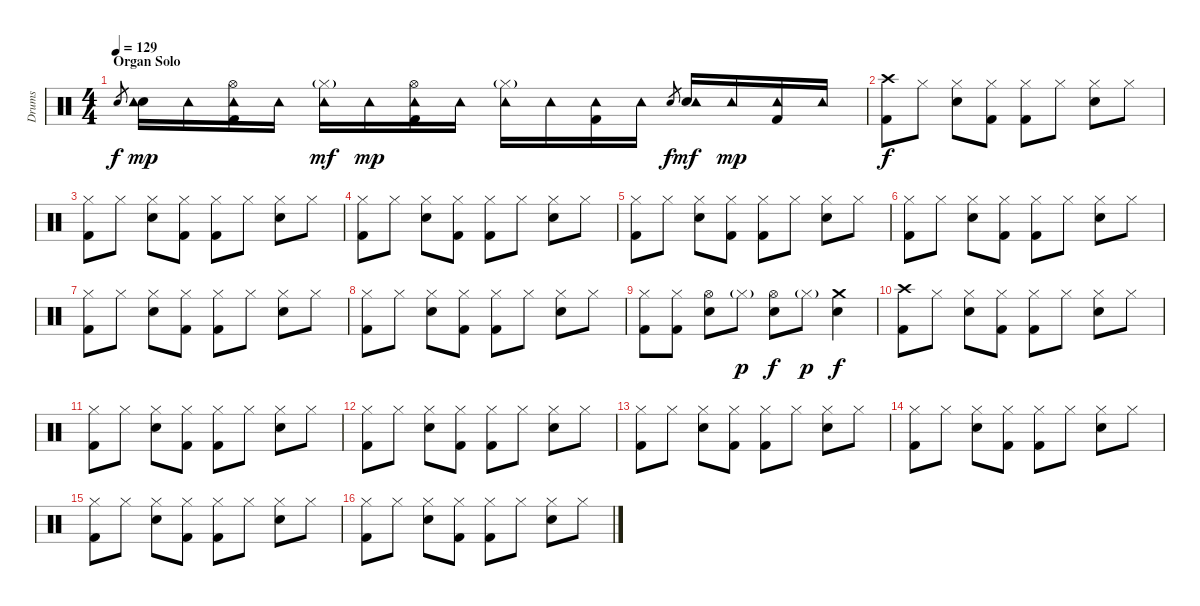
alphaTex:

\track ("Drums" "Drums") {instrument percussion}
\staff {score}
\articulation defaults
\ts (4 4)
\section ("" "Organ Solo")
\tempo 129
\clef neutral
\ks c "Snare (hit) 2".8{gr dy f}
("Snare (hit) 2" "Tambourine (hit)").16{dy mp} "Tambourine (hit)".16 ("Kick (hit) 2" "Hi-Hat (open)" "Tambourine (hit)").16 "Tambourine (hit)".16 ("Hi-Hat (closed)"{g} "Tambourine (hit)").16{dy mf} "Tambourine (hit)".16{dy mp} ("Kick (hit) 2" "Hi-Hat (open)" "Tambourine (hit)").16 "Tambourine (hit)".16 ("Hi-Hat (closed)"{g} "Tambourine (hit)").16 "Tambourine (hit)".16 ("Kick (hit) 2" "Tambourine (hit)").16 "Tambourine (hit)".16 "Snare (hit) 2".8{gr dy f} ("Snare (hit) 2" "Tambourine (hit)").16{dy mf} "Tambourine (hit)".16{dy mp} ("Kick (hit) 2" "Tambourine (hit)").16 "Tambourine (hit)".16 |
("Kick (hit) 2" "Crash high (hit)").8{dy f} "Hi-Hat (closed)".8 ("Snare (hit) 2" "Hi-Hat (closed)").8 ("Kick (hit) 2" "Hi-Hat (closed)").8 ("Kick (hit) 2" "Hi-Hat (closed)").8 "Hi-Hat (closed)".8 ("Snare (hit) 2" "Hi-Hat (closed)").8 "Hi-Hat (closed)".8 |
("Kick (hit) 2" "Hi-Hat (closed)").8 "Hi-Hat (closed)".8 ("Snare (hit) 2" "Hi-Hat (closed)").8 ("Kick (hit) 2" "Hi-Hat (closed)").8 ("Kick (hit) 2" "Hi-Hat (closed)").8 "Hi-Hat (closed)".8 ("Snare (hit) 2" "Hi-Hat (closed)").8 "Hi-Hat (closed)".8 |
("Kick (hit) 2" "Hi-Hat (closed)").8 "Hi-Hat (closed)".8 ("Snare (hit) 2" "Hi-Hat (closed)").8 ("Kick (hit) 2" "Hi-Hat (closed)").8 ("Kick (hit) 2" "Hi-Hat (closed)").8 "Hi-Hat (closed)".8 ("Snare (hit) 2" "Hi-Hat (closed)").8 "Hi-Hat (closed)".8 |
("Kick (hit) 2" "Hi-Hat (closed)").8 "Hi-Hat (closed)".8 ("Snare (hit) 2" "Hi-Hat (closed)").8 ("Kick (hit) 2" "Hi-Hat (closed)").8 ("Kick (hit) 2" "Hi-Hat (closed)").8 "Hi-Hat (closed)".8 ("Snare (hit) 2" "Hi-Hat (closed)").8 "Hi-Hat (closed)".8 |
("Kick (hit) 2" "Hi-Hat (closed)").8 "Hi-Hat (closed)".8 ("Snare (hit) 2" "Hi-Hat (closed)").8 ("Kick (hit) 2" "Hi-Hat (closed)").8 ("Kick (hit) 2" "Hi-Hat (closed)").8 "Hi-Hat (closed)".8 ("Snare (hit) 2" "Hi-Hat (closed)").8 "Hi-Hat (closed)".8 |
("Kick (hit) 2" "Hi-Hat (closed)").8 "Hi-Hat (closed)".8 ("Snare (hit) 2" "Hi-Hat (closed)").8 ("Kick (hit) 2" "Hi-Hat (closed)").8 ("Kick (hit) 2" "Hi-Hat (closed)").8 "Hi-Hat (closed)".8 ("Snare (hit) 2" "Hi-Hat (closed)").8 "Hi-Hat (closed)".8 |
("Kick (hit) 2" "Hi-Hat (closed)").8 "Hi-Hat (closed)".8 ("Snare (hit) 2" "Hi-Hat (closed)").8 ("Kick (hit) 2" "Hi-Hat (closed)").8 ("Kick (hit) 2" "Hi-Hat (closed)").8 "Hi-Hat (closed)".8 ("Snare (hit) 2" "Hi-Hat (closed)").8 "Hi-Hat (closed)".8 |
("Kick (hit) 2" "Hi-Hat (closed)").8 ("Kick (hit) 2" "Hi-Hat (closed)").8 ("Snare (hit) 2" "Hi-Hat (open)").8 "Hi-Hat (closed)"{g}.8{dy p} ("Snare (hit) 2" "Hi-Hat (open)").8{dy f} "Hi-Hat (closed)"{g}.8{dy p} ("Crash medium (hit)" "Snare (hit) 2").4{dy f} |
("Kick (hit) 2" "Crash high (hit)").8 "Hi-Hat (closed)".8 ("Snare (hit) 2" "Hi-Hat (closed)").8 ("Kick (hit) 2" "Hi-Hat (closed)").8 ("Kick (hit) 2" "Hi-Hat (closed)").8 "Hi-Hat (closed)".8 ("Snare (hit) 2" "Hi-Hat (closed)").8 "Hi-Hat (closed)".8 |
("Kick (hit) 2" "Hi-Hat (closed)").8 "Hi-Hat (closed)".8 ("Snare (hit) 2" "Hi-Hat (closed)").8 ("Kick (hit) 2" "Hi-Hat (closed)").8 ("Kick (hit) 2" "Hi-Hat (closed)").8 "Hi-Hat (closed)".8 ("Snare (hit) 2" "Hi-Hat (closed)").8 "Hi-Hat (closed)".8 |
("Kick (hit) 2" "Hi-Hat (closed)").8 "Hi-Hat (closed)".8 ("Snare (hit) 2" "Hi-Hat (closed)").8 ("Kick (hit) 2" "Hi-Hat (closed)").8 ("Kick (hit) 2" "Hi-Hat (closed)").8 "Hi-Hat (closed)".8 ("Snare (hit) 2" "Hi-Hat (closed)").8 "Hi-Hat (closed)".8 |
("Kick (hit) 2" "Hi-Hat (closed)").8 "Hi-Hat (closed)".8 ("Snare (hit) 2" "Hi-Hat (closed)").8 ("Kick (hit) 2" "Hi-Hat (closed)").8 ("Kick (hit) 2" "Hi-Hat (closed)").8 "Hi-Hat (closed)".8 ("Snare (hit) 2" "Hi-Hat (closed)").8 "Hi-Hat (closed)".8 |
("Kick (hit) 2" "Hi-Hat (closed)").8 "Hi-Hat (closed)".8 ("Snare (hit) 2" "Hi-Hat (closed)").8 ("Kick (hit) 2" "Hi-Hat (closed)").8 ("Kick (hit) 2" "Hi-Hat (closed)").8 "Hi-Hat (closed)".8 ("Snare (hit) 2" "Hi-Hat (closed)").8 "Hi-Hat (closed)".8 |
("Kick (hit) 2" "Hi-Hat (closed)").8 "Hi-Hat (closed)".8 ("Snare (hit) 2" "Hi-Hat (closed)").8 ("Kick (hit) 2" "Hi-Hat (closed)").8 ("Kick (hit) 2" "Hi-Hat (closed)").8 "Hi-Hat (closed)".8 ("Snare (hit) 2" "Hi-Hat (closed)").8 "Hi-Hat (closed)".8 |
("Kick (hit) 2" "Hi-Hat (closed)").8 "Hi-Hat (closed)".8 ("Snare (hit) 2" "Hi-Hat (closed)").8 ("Kick (hit) 2" "Hi-Hat (closed)").8 ("Kick (hit) 2" "Hi-Hat (closed)").8 "Hi-Hat (closed)".8 ("Snare (hit) 2" "Hi-Hat (closed)").8 "Hi-Hat (closed)".8
